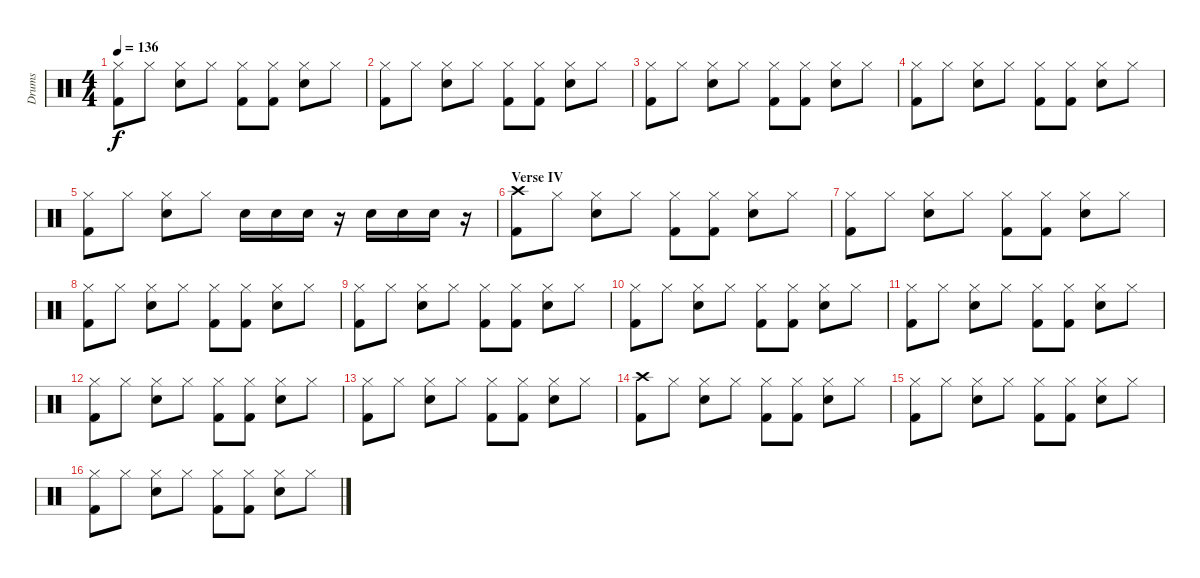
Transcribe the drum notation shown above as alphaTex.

\track ("Drums" "Drums") {instrument percussion}
\staff {score}
\articulation defaults
\ts (4 4)
\tempo 136
\clef neutral
\ks c
("Hi-Hat (closed)" "Kick (hit) 2").8{dy f} "Hi-Hat (closed)".8 ("Hi-Hat (closed)" "Snare (hit) 2").8 "Hi-Hat (closed)".8 ("Hi-Hat (closed)" "Kick (hit) 2").8 ("Hi-Hat (closed)" "Kick (hit) 2").8 ("Hi-Hat (closed)" "Snare (hit) 2").8 "Hi-Hat (closed)".8 |
("Hi-Hat (closed)" "Kick (hit) 2").8 "Hi-Hat (closed)".8 ("Hi-Hat (closed)" "Snare (hit) 2").8 "Hi-Hat (closed)".8 ("Hi-Hat (closed)" "Kick (hit) 2").8 ("Hi-Hat (closed)" "Kick (hit) 2").8 ("Hi-Hat (closed)" "Snare (hit) 2").8 "Hi-Hat (closed)".8 |
("Hi-Hat (closed)" "Kick (hit) 2").8 "Hi-Hat (closed)".8 ("Hi-Hat (closed)" "Snare (hit) 2").8 "Hi-Hat (closed)".8 ("Hi-Hat (closed)" "Kick (hit) 2").8 ("Hi-Hat (closed)" "Kick (hit) 2").8 ("Hi-Hat (closed)" "Snare (hit) 2").8 "Hi-Hat (closed)".8 |
("Hi-Hat (closed)" "Kick (hit) 2").8 "Hi-Hat (closed)".8 ("Hi-Hat (closed)" "Snare (hit) 2").8 "Hi-Hat (closed)".8 ("Hi-Hat (closed)" "Kick (hit) 2").8 ("Hi-Hat (closed)" "Kick (hit) 2").8 ("Hi-Hat (closed)" "Snare (hit) 2").8 "Hi-Hat (closed)".8 |
("Hi-Hat (closed)" "Kick (hit) 2").8 "Hi-Hat (closed)".8 ("Hi-Hat (closed)" "Snare (hit) 2").8 "Hi-Hat (closed)".8 "Snare (hit) 2".16 "Snare (hit) 2".16 "Snare (hit) 2".16 r.16 "Snare (hit) 2".16 "Snare (hit) 2".16 "Snare (hit) 2".16 r.16 |
\section ("" "Verse IV")
("Crash high (hit)" "Kick (hit) 2").8 "Hi-Hat (closed)".8 ("Hi-Hat (closed)" "Snare (hit) 2").8 "Hi-Hat (closed)".8 ("Hi-Hat (closed)" "Kick (hit) 2").8 ("Hi-Hat (closed)" "Kick (hit) 2").8 ("Hi-Hat (closed)" "Snare (hit) 2").8 "Hi-Hat (closed)".8 |
("Hi-Hat (closed)" "Kick (hit) 2").8 "Hi-Hat (closed)".8 ("Hi-Hat (closed)" "Snare (hit) 2").8 "Hi-Hat (closed)".8 ("Hi-Hat (closed)" "Kick (hit) 2").8 ("Hi-Hat (closed)" "Kick (hit) 2").8 ("Hi-Hat (closed)" "Snare (hit) 2").8 "Hi-Hat (closed)".8 |
("Hi-Hat (closed)" "Kick (hit) 2").8 "Hi-Hat (closed)".8 ("Hi-Hat (closed)" "Snare (hit) 2").8 "Hi-Hat (closed)".8 ("Hi-Hat (closed)" "Kick (hit) 2").8 ("Hi-Hat (closed)" "Kick (hit) 2").8 ("Hi-Hat (closed)" "Snare (hit) 2").8 "Hi-Hat (closed)".8 |
("Hi-Hat (closed)" "Kick (hit) 2").8 "Hi-Hat (closed)".8 ("Hi-Hat (closed)" "Snare (hit) 2").8 "Hi-Hat (closed)".8 ("Hi-Hat (closed)" "Kick (hit) 2").8 ("Hi-Hat (closed)" "Kick (hit) 2").8 ("Hi-Hat (closed)" "Snare (hit) 2").8 "Hi-Hat (closed)".8 |
("Hi-Hat (closed)" "Kick (hit) 2").8 "Hi-Hat (closed)".8 ("Hi-Hat (closed)" "Snare (hit) 2").8 "Hi-Hat (closed)".8 ("Hi-Hat (closed)" "Kick (hit) 2").8 ("Hi-Hat (closed)" "Kick (hit) 2").8 ("Hi-Hat (closed)" "Snare (hit) 2").8 "Hi-Hat (closed)".8 |
("Hi-Hat (closed)" "Kick (hit) 2").8 "Hi-Hat (closed)".8 ("Hi-Hat (closed)" "Snare (hit) 2").8 "Hi-Hat (closed)".8 ("Hi-Hat (closed)" "Kick (hit) 2").8 ("Hi-Hat (closed)" "Kick (hit) 2").8 ("Hi-Hat (closed)" "Snare (hit) 2").8 "Hi-Hat (closed)".8 |
("Hi-Hat (closed)" "Kick (hit) 2").8 "Hi-Hat (closed)".8 ("Hi-Hat (closed)" "Snare (hit) 2").8 "Hi-Hat (closed)".8 ("Hi-Hat (closed)" "Kick (hit) 2").8 ("Hi-Hat (closed)" "Kick (hit) 2").8 ("Hi-Hat (closed)" "Snare (hit) 2").8 "Hi-Hat (closed)".8 |
("Hi-Hat (closed)" "Kick (hit) 2").8 "Hi-Hat (closed)".8 ("Hi-Hat (closed)" "Snare (hit) 2").8 "Hi-Hat (closed)".8 ("Hi-Hat (closed)" "Kick (hit) 2").8 ("Hi-Hat (closed)" "Kick (hit) 2").8 ("Hi-Hat (closed)" "Snare (hit) 2").8 "Hi-Hat (closed)".8 |
("Crash high (hit)" "Kick (hit) 2").8 "Hi-Hat (closed)".8 ("Hi-Hat (closed)" "Snare (hit) 2").8 "Hi-Hat (closed)".8 ("Hi-Hat (closed)" "Kick (hit) 2").8 ("Hi-Hat (closed)" "Kick (hit) 2").8 ("Hi-Hat (closed)" "Snare (hit) 2").8 "Hi-Hat (closed)".8 |
("Hi-Hat (closed)" "Kick (hit) 2").8 "Hi-Hat (closed)".8 ("Hi-Hat (closed)" "Snare (hit) 2").8 "Hi-Hat (closed)".8 ("Hi-Hat (closed)" "Kick (hit) 2").8 ("Hi-Hat (closed)" "Kick (hit) 2").8 ("Hi-Hat (closed)" "Snare (hit) 2").8 "Hi-Hat (closed)".8 |
("Hi-Hat (closed)" "Kick (hit) 2").8 "Hi-Hat (closed)".8 ("Hi-Hat (closed)" "Snare (hit) 2").8 "Hi-Hat (closed)".8 ("Hi-Hat (closed)" "Kick (hit) 2").8 ("Hi-Hat (closed)" "Kick (hit) 2").8 ("Hi-Hat (closed)" "Snare (hit) 2").8 "Hi-Hat (closed)".8
